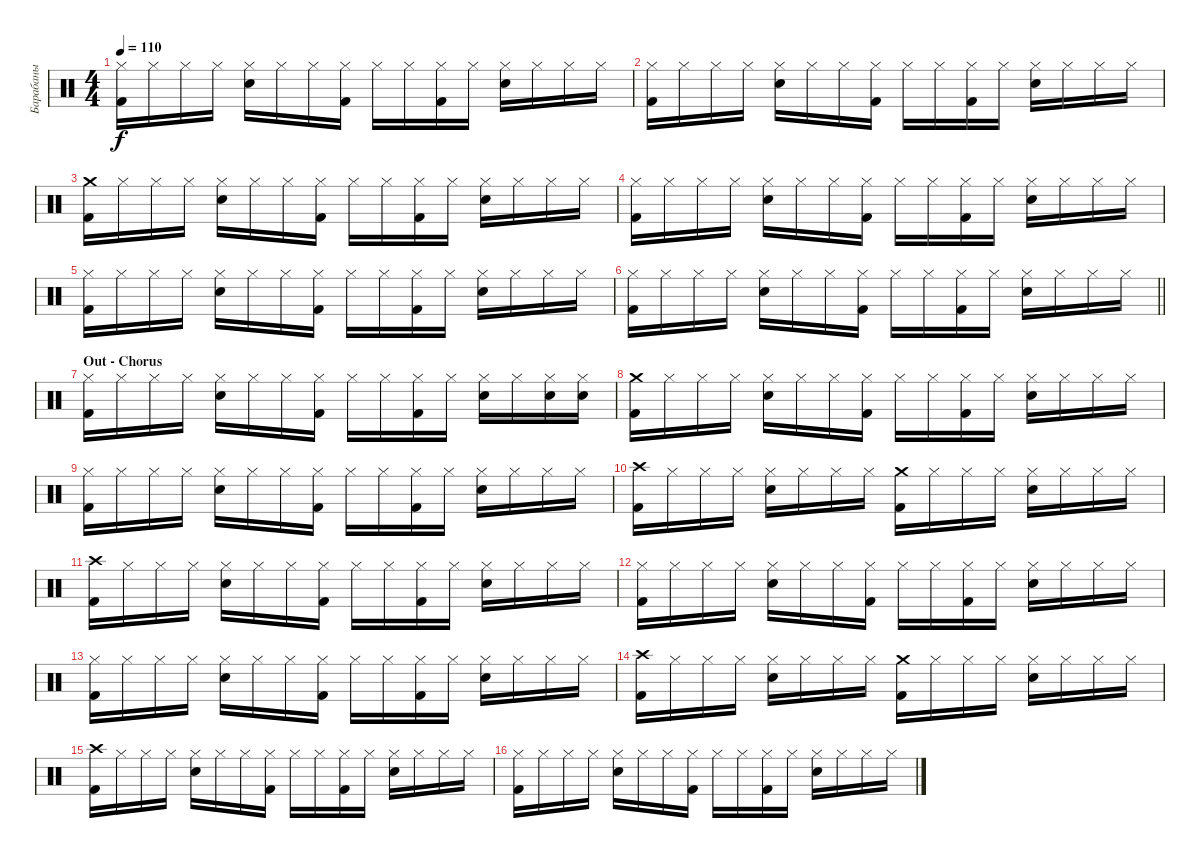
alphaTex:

\track ("Барабаны" "Барабаны") {instrument percussion}
\staff {score}
\articulation defaults
\ts (4 4)
\tempo 110
\clef neutral
\ks c
("Hi-Hat (closed)" "Kick (hit) 2").16{dy f} "Hi-Hat (closed)".16 "Hi-Hat (closed)".16 "Hi-Hat (closed)".16 ("Hi-Hat (closed)" "Snare (hit) 2").16 "Hi-Hat (closed)".16 "Hi-Hat (closed)".16 ("Hi-Hat (closed)" "Kick (hit) 2").16 "Hi-Hat (closed)".16 "Hi-Hat (closed)".16 ("Hi-Hat (closed)" "Kick (hit) 2").16 "Hi-Hat (closed)".16 ("Hi-Hat (closed)" "Snare (hit) 2").16 "Hi-Hat (closed)".16 "Hi-Hat (closed)".16 "Hi-Hat (closed)".16 |
("Hi-Hat (closed)" "Kick (hit) 2").16 "Hi-Hat (closed)".16 "Hi-Hat (closed)".16 "Hi-Hat (closed)".16 ("Hi-Hat (closed)" "Snare (hit) 2").16 "Hi-Hat (closed)".16 "Hi-Hat (closed)".16 ("Hi-Hat (closed)" "Kick (hit) 2").16 "Hi-Hat (closed)".16 "Hi-Hat (closed)".16 ("Hi-Hat (closed)" "Kick (hit) 2").16 "Hi-Hat (closed)".16 ("Hi-Hat (closed)" "Snare (hit) 2").16 "Hi-Hat (closed)".16 "Hi-Hat (closed)".16 "Hi-Hat (closed)".16 |
("Crash medium (hit)" "Kick (hit) 2").16 "Hi-Hat (closed)".16 "Hi-Hat (closed)".16 "Hi-Hat (closed)".16 ("Hi-Hat (closed)" "Snare (hit) 2").16 "Hi-Hat (closed)".16 "Hi-Hat (closed)".16 ("Hi-Hat (closed)" "Kick (hit) 2").16 "Hi-Hat (closed)".16 "Hi-Hat (closed)".16 ("Hi-Hat (closed)" "Kick (hit) 2").16 "Hi-Hat (closed)".16 ("Hi-Hat (closed)" "Snare (hit) 2").16 "Hi-Hat (closed)".16 "Hi-Hat (closed)".16 "Hi-Hat (closed)".16 |
("Hi-Hat (closed)" "Kick (hit) 2").16 "Hi-Hat (closed)".16 "Hi-Hat (closed)".16 "Hi-Hat (closed)".16 ("Hi-Hat (closed)" "Snare (hit) 2").16 "Hi-Hat (closed)".16 "Hi-Hat (closed)".16 ("Hi-Hat (closed)" "Kick (hit) 2").16 "Hi-Hat (closed)".16 "Hi-Hat (closed)".16 ("Hi-Hat (closed)" "Kick (hit) 2").16 "Hi-Hat (closed)".16 ("Hi-Hat (closed)" "Snare (hit) 2").16 "Hi-Hat (closed)".16 "Hi-Hat (closed)".16 "Hi-Hat (closed)".16 |
("Hi-Hat (closed)" "Kick (hit) 2").16 "Hi-Hat (closed)".16 "Hi-Hat (closed)".16 "Hi-Hat (closed)".16 ("Hi-Hat (closed)" "Snare (hit) 2").16 "Hi-Hat (closed)".16 "Hi-Hat (closed)".16 ("Hi-Hat (closed)" "Kick (hit) 2").16 "Hi-Hat (closed)".16 "Hi-Hat (closed)".16 ("Hi-Hat (closed)" "Kick (hit) 2").16 "Hi-Hat (closed)".16 ("Hi-Hat (closed)" "Snare (hit) 2").16 "Hi-Hat (closed)".16 "Hi-Hat (closed)".16 "Hi-Hat (closed)".16 |
\barLineRight lightlight
("Hi-Hat (closed)" "Kick (hit) 2").16 "Hi-Hat (closed)".16 "Hi-Hat (closed)".16 "Hi-Hat (closed)".16 ("Hi-Hat (closed)" "Snare (hit) 2").16 "Hi-Hat (closed)".16 "Hi-Hat (closed)".16 ("Hi-Hat (closed)" "Kick (hit) 2").16 "Hi-Hat (closed)".16 "Hi-Hat (closed)".16 ("Hi-Hat (closed)" "Kick (hit) 2").16 "Hi-Hat (closed)".16 ("Hi-Hat (closed)" "Snare (hit) 2").16 "Hi-Hat (closed)".16 "Hi-Hat (closed)".16 "Hi-Hat (closed)".16 |
\section ("" "Out - Chorus")
("Hi-Hat (closed)" "Kick (hit) 2").16 "Hi-Hat (closed)".16 "Hi-Hat (closed)".16 "Hi-Hat (closed)".16 ("Hi-Hat (closed)" "Snare (hit) 2").16 "Hi-Hat (closed)".16 "Hi-Hat (closed)".16 ("Hi-Hat (closed)" "Kick (hit) 2").16 "Hi-Hat (closed)".16 "Hi-Hat (closed)".16 ("Hi-Hat (closed)" "Kick (hit) 2").16 "Hi-Hat (closed)".16 ("Hi-Hat (closed)" "Snare (hit) 2").16 "Hi-Hat (closed)".16 ("Hi-Hat (closed)" "Snare (hit) 2").16 ("Hi-Hat (closed)" "Snare (hit) 2").16 |
("Crash medium (hit)" "Kick (hit) 2").16 "Hi-Hat (closed)".16 "Hi-Hat (closed)".16 "Hi-Hat (closed)".16 ("Hi-Hat (closed)" "Snare (hit) 2").16 "Hi-Hat (closed)".16 "Hi-Hat (closed)".16 ("Hi-Hat (closed)" "Kick (hit) 2").16 "Hi-Hat (closed)".16 "Hi-Hat (closed)".16 ("Hi-Hat (closed)" "Kick (hit) 2").16 "Hi-Hat (closed)".16 ("Hi-Hat (closed)" "Snare (hit) 2").16 "Hi-Hat (closed)".16 "Hi-Hat (closed)".16 "Hi-Hat (closed)".16 |
("Hi-Hat (closed)" "Kick (hit) 2").16 "Hi-Hat (closed)".16 "Hi-Hat (closed)".16 "Hi-Hat (closed)".16 ("Hi-Hat (closed)" "Snare (hit) 2").16 "Hi-Hat (closed)".16 "Hi-Hat (closed)".16 ("Hi-Hat (closed)" "Kick (hit) 2").16 "Hi-Hat (closed)".16 "Hi-Hat (closed)".16 ("Hi-Hat (closed)" "Kick (hit) 2").16 "Hi-Hat (closed)".16 ("Hi-Hat (closed)" "Snare (hit) 2").16 "Hi-Hat (closed)".16 "Hi-Hat (closed)".16 "Hi-Hat (closed)".16 |
("Crash high (hit)" "Kick (hit) 2").16 "Hi-Hat (closed)".16 "Hi-Hat (closed)".16 "Hi-Hat (closed)".16 ("Hi-Hat (closed)" "Snare (hit) 2").16 "Hi-Hat (closed)".16 "Hi-Hat (closed)".16 "Hi-Hat (closed)".16 ("Crash medium (hit)" "Kick (hit) 2").16 "Hi-Hat (closed)".16 "Hi-Hat (closed)".16 "Hi-Hat (closed)".16 ("Hi-Hat (closed)" "Snare (hit) 2").16 "Hi-Hat (closed)".16 "Hi-Hat (closed)".16 "Hi-Hat (closed)".16 |
("Crash high (hit)" "Kick (hit) 2").16 "Hi-Hat (closed)".16 "Hi-Hat (closed)".16 "Hi-Hat (closed)".16 ("Hi-Hat (closed)" "Snare (hit) 2").16 "Hi-Hat (closed)".16 "Hi-Hat (closed)".16 ("Hi-Hat (closed)" "Kick (hit) 2").16 "Hi-Hat (closed)".16 "Hi-Hat (closed)".16 ("Hi-Hat (closed)" "Kick (hit) 2").16 "Hi-Hat (closed)".16 ("Hi-Hat (closed)" "Snare (hit) 2").16 "Hi-Hat (closed)".16 "Hi-Hat (closed)".16 "Hi-Hat (closed)".16 |
("Hi-Hat (closed)" "Kick (hit) 2").16 "Hi-Hat (closed)".16 "Hi-Hat (closed)".16 "Hi-Hat (closed)".16 ("Hi-Hat (closed)" "Snare (hit) 2").16 "Hi-Hat (closed)".16 "Hi-Hat (closed)".16 ("Hi-Hat (closed)" "Kick (hit) 2").16 "Hi-Hat (closed)".16 "Hi-Hat (closed)".16 ("Hi-Hat (closed)" "Kick (hit) 2").16 "Hi-Hat (closed)".16 ("Hi-Hat (closed)" "Snare (hit) 2").16 "Hi-Hat (closed)".16 "Hi-Hat (closed)".16 "Hi-Hat (closed)".16 |
("Hi-Hat (closed)" "Kick (hit) 2").16 "Hi-Hat (closed)".16 "Hi-Hat (closed)".16 "Hi-Hat (closed)".16 ("Hi-Hat (closed)" "Snare (hit) 2").16 "Hi-Hat (closed)".16 "Hi-Hat (closed)".16 ("Hi-Hat (closed)" "Kick (hit) 2").16 "Hi-Hat (closed)".16 "Hi-Hat (closed)".16 ("Hi-Hat (closed)" "Kick (hit) 2").16 "Hi-Hat (closed)".16 ("Hi-Hat (closed)" "Snare (hit) 2").16 "Hi-Hat (closed)".16 "Hi-Hat (closed)".16 "Hi-Hat (closed)".16 |
("Crash high (hit)" "Kick (hit) 2").16 "Hi-Hat (closed)".16 "Hi-Hat (closed)".16 "Hi-Hat (closed)".16 ("Hi-Hat (closed)" "Snare (hit) 2").16 "Hi-Hat (closed)".16 "Hi-Hat (closed)".16 "Hi-Hat (closed)".16 ("Crash medium (hit)" "Kick (hit) 2").16 "Hi-Hat (closed)".16 "Hi-Hat (closed)".16 "Hi-Hat (closed)".16 ("Hi-Hat (closed)" "Snare (hit) 2").16 "Hi-Hat (closed)".16 "Hi-Hat (closed)".16 "Hi-Hat (closed)".16 |
("Crash high (hit)" "Kick (hit) 2").16 "Hi-Hat (closed)".16 "Hi-Hat (closed)".16 "Hi-Hat (closed)".16 ("Hi-Hat (closed)" "Snare (hit) 2").16 "Hi-Hat (closed)".16 "Hi-Hat (closed)".16 ("Hi-Hat (closed)" "Kick (hit) 2").16 "Hi-Hat (closed)".16 "Hi-Hat (closed)".16 ("Hi-Hat (closed)" "Kick (hit) 2").16 "Hi-Hat (closed)".16 ("Hi-Hat (closed)" "Snare (hit) 2").16 "Hi-Hat (closed)".16 "Hi-Hat (closed)".16 "Hi-Hat (closed)".16 |
("Hi-Hat (closed)" "Kick (hit) 2").16 "Hi-Hat (closed)".16 "Hi-Hat (closed)".16 "Hi-Hat (closed)".16 ("Hi-Hat (closed)" "Snare (hit) 2").16 "Hi-Hat (closed)".16 "Hi-Hat (closed)".16 ("Hi-Hat (closed)" "Kick (hit) 2").16 "Hi-Hat (closed)".16 "Hi-Hat (closed)".16 ("Hi-Hat (closed)" "Kick (hit) 2").16 "Hi-Hat (closed)".16 ("Hi-Hat (closed)" "Snare (hit) 2").16 "Hi-Hat (closed)".16 "Hi-Hat (closed)".16 "Hi-Hat (closed)".16
